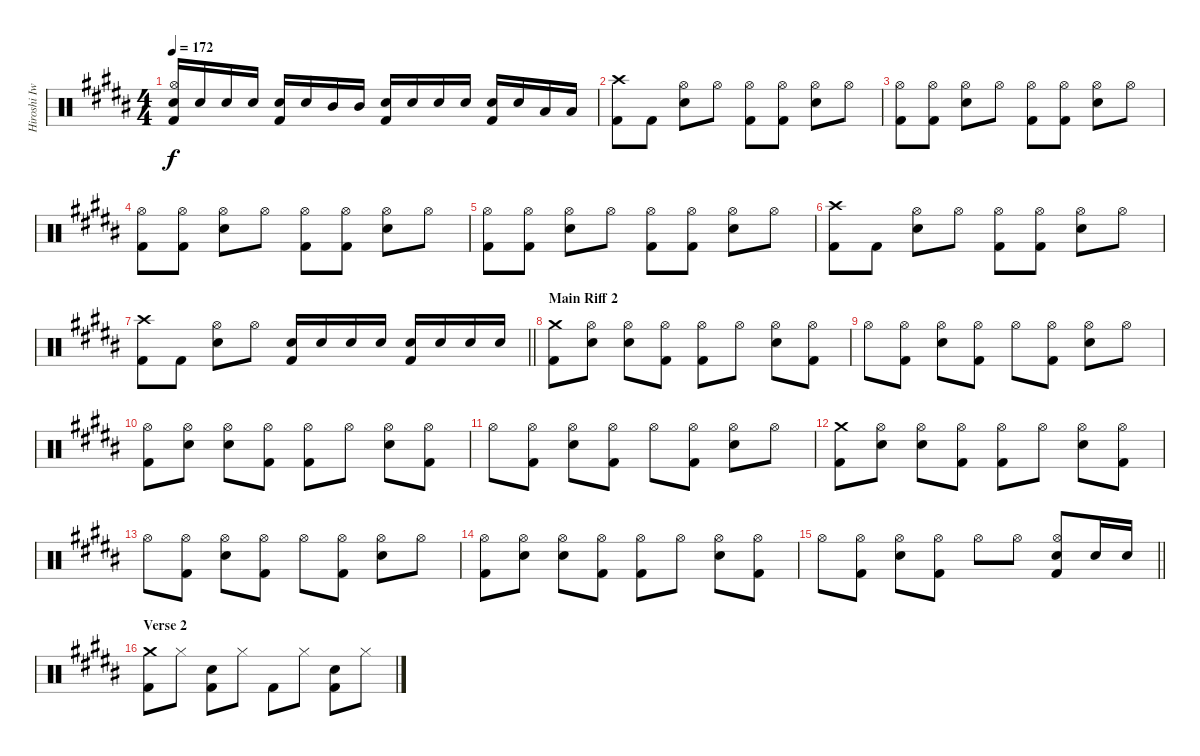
\track ("Hiroshi Iwasaki - Drums" "Hiroshi Iw") {instrument percussion}
\staff {score}
\articulation defaults
\ts (4 4)
\tempo 172
\clef neutral
\ks b
("Snare (hit) 2" "Hi-Hat (open)" "Kick (hit) 2").16{dy f} "Snare (hit) 2".16 "Snare (hit) 2".16 "Snare (hit) 2".16 ("Snare (hit) 2" "Kick (hit) 2").16 "Snare (hit) 2".16 "Mid Tom (hit)".16 "Mid Tom (hit)".16 ("Snare (hit) 2" "Kick (hit) 2").16 "Snare (hit) 2".16 "Snare (hit) 2".16 "Snare (hit) 2".16 ("Snare (hit) 2" "Kick (hit) 2").16 "Snare (hit) 2".16 "Low Tom (hit)".16 "Low Tom (hit)".16 |
("Crash high (hit)" "Kick (hit) 2").8 "Kick (hit) 2".8 ("Snare (hit) 2" "Hi-Hat (open)").8 "Hi-Hat (open)".8 ("Hi-Hat (open)" "Kick (hit) 2").8 ("Hi-Hat (open)" "Kick (hit) 2").8 ("Snare (hit) 2" "Hi-Hat (open)").8 "Hi-Hat (open)".8 |
("Hi-Hat (open)" "Kick (hit) 2").8 ("Hi-Hat (open)" "Kick (hit) 2").8 ("Snare (hit) 2" "Hi-Hat (open)").8 "Hi-Hat (open)".8 ("Hi-Hat (open)" "Kick (hit) 2").8 ("Hi-Hat (open)" "Kick (hit) 2").8 ("Snare (hit) 2" "Hi-Hat (open)").8 "Hi-Hat (open)".8 |
("Hi-Hat (open)" "Kick (hit) 2").8 ("Hi-Hat (open)" "Kick (hit) 2").8 ("Snare (hit) 2" "Hi-Hat (open)").8 "Hi-Hat (open)".8 ("Hi-Hat (open)" "Kick (hit) 2").8 ("Hi-Hat (open)" "Kick (hit) 2").8 ("Snare (hit) 2" "Hi-Hat (open)").8 "Hi-Hat (open)".8 |
("Hi-Hat (open)" "Kick (hit) 2").8 ("Hi-Hat (open)" "Kick (hit) 2").8 ("Snare (hit) 2" "Hi-Hat (open)").8 "Hi-Hat (open)".8 ("Hi-Hat (open)" "Kick (hit) 2").8 ("Hi-Hat (open)" "Kick (hit) 2").8 ("Snare (hit) 2" "Hi-Hat (open)").8 "Hi-Hat (open)".8 |
("Crash high (hit)" "Kick (hit) 2").8 "Kick (hit) 2".8 ("Snare (hit) 2" "Hi-Hat (open)").8 "Hi-Hat (open)".8 ("Hi-Hat (open)" "Kick (hit) 2").8 ("Hi-Hat (open)" "Kick (hit) 2").8 ("Snare (hit) 2" "Hi-Hat (open)").8 "Hi-Hat (open)".8 |
\barLineRight lightlight
("Crash high (hit)" "Kick (hit) 2").8 "Kick (hit) 2".8 ("Snare (hit) 2" "Hi-Hat (open)").8 "Hi-Hat (open)".8 ("Snare (hit) 2" "Kick (hit) 2").16 "Snare (hit) 2".16 "Snare (hit) 2".16 "Snare (hit) 2".16 ("Snare (hit) 2" "Kick (hit) 2").16 "Snare (hit) 2".16 "Snare (hit) 2".16 "Snare (hit) 2".16 |
\section ("" "Main Riff 2")
("Crash medium (hit)" "Kick (hit) 2").8 ("Snare (hit) 2" "Hi-Hat (open)").8 ("Snare (hit) 2" "Hi-Hat (open)").8 ("Hi-Hat (open)" "Kick (hit) 2").8 ("Hi-Hat (open)" "Kick (hit) 2").8 "Hi-Hat (open)".8 ("Snare (hit) 2" "Hi-Hat (open)").8 ("Hi-Hat (open)" "Kick (hit) 2").8 |
"Hi-Hat (open)".8 ("Hi-Hat (open)" "Kick (hit) 2").8 ("Snare (hit) 2" "Hi-Hat (open)").8 ("Hi-Hat (open)" "Kick (hit) 2").8 "Hi-Hat (open)".8 ("Hi-Hat (open)" "Kick (hit) 2").8 ("Snare (hit) 2" "Hi-Hat (open)").8 "Hi-Hat (open)".8 |
("Hi-Hat (open)" "Kick (hit) 2").8 ("Snare (hit) 2" "Hi-Hat (open)").8 ("Snare (hit) 2" "Hi-Hat (open)").8 ("Hi-Hat (open)" "Kick (hit) 2").8 ("Hi-Hat (open)" "Kick (hit) 2").8 "Hi-Hat (open)".8 ("Snare (hit) 2" "Hi-Hat (open)").8 ("Hi-Hat (open)" "Kick (hit) 2").8 |
"Hi-Hat (open)".8 ("Hi-Hat (open)" "Kick (hit) 2").8 ("Snare (hit) 2" "Hi-Hat (open)").8 ("Hi-Hat (open)" "Kick (hit) 2").8 "Hi-Hat (open)".8 ("Hi-Hat (open)" "Kick (hit) 2").8 ("Snare (hit) 2" "Hi-Hat (open)").8 "Hi-Hat (open)".8 |
("Crash medium (hit)" "Kick (hit) 2").8 ("Snare (hit) 2" "Hi-Hat (open)").8 ("Snare (hit) 2" "Hi-Hat (open)").8 ("Hi-Hat (open)" "Kick (hit) 2").8 ("Hi-Hat (open)" "Kick (hit) 2").8 "Hi-Hat (open)".8 ("Snare (hit) 2" "Hi-Hat (open)").8 ("Hi-Hat (open)" "Kick (hit) 2").8 |
"Hi-Hat (open)".8 ("Hi-Hat (open)" "Kick (hit) 2").8 ("Snare (hit) 2" "Hi-Hat (open)").8 ("Hi-Hat (open)" "Kick (hit) 2").8 "Hi-Hat (open)".8 ("Hi-Hat (open)" "Kick (hit) 2").8 ("Snare (hit) 2" "Hi-Hat (open)").8 "Hi-Hat (open)".8 |
("Hi-Hat (open)" "Kick (hit) 2").8 ("Snare (hit) 2" "Hi-Hat (open)").8 ("Snare (hit) 2" "Hi-Hat (open)").8 ("Hi-Hat (open)" "Kick (hit) 2").8 ("Hi-Hat (open)" "Kick (hit) 2").8 "Hi-Hat (open)".8 ("Snare (hit) 2" "Hi-Hat (open)").8 ("Hi-Hat (open)" "Kick (hit) 2").8 |
\barLineRight lightlight "Hi-Hat (open)".8
("Hi-Hat (open)" "Kick (hit) 2").8 ("Snare (hit) 2" "Hi-Hat (open)").8 ("Hi-Hat (open)" "Kick (hit) 2").8 "Hi-Hat (open)".8 "Hi-Hat (open)".8 ("Snare (hit) 2" "Hi-Hat (open)" "Kick (hit) 2").8 "Snare (hit) 2".16 "Snare (hit) 2".16 |
\section ("" "Verse 2")
("Crash medium (hit)" "Kick (hit) 2").8 "Hi-Hat (closed)".8 ("Snare (hit) 2" "Kick (hit) 2").8 "Hi-Hat (closed)".8 "Kick (hit) 2".8 "Hi-Hat (closed)".8 ("Snare (hit) 2" "Kick (hit) 2").8 "Hi-Hat (closed)".8
